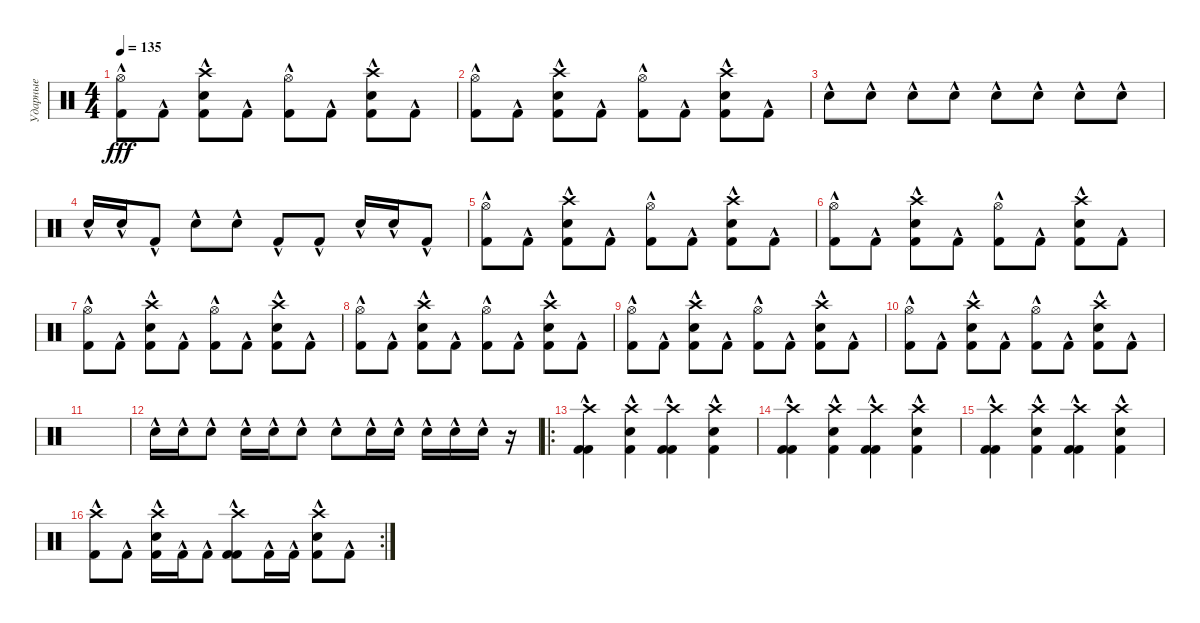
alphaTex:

\track ("Ударные" "Ударные") {instrument percussion}
\staff
\articulation defaults
\ts (4 4)
\tempo 135
\clef neutral
\ks c
("Kick (hit) 2"{hac} "Hi-Hat (open)"{hac}).8{dy fff} "Kick (hit) 2"{hac}.8 ("Kick (hit) 2"{hac} "Electric Snare (hit)"{hac} "Crash high (hit)"{hac}).8 "Kick (hit) 2"{hac}.8 ("Kick (hit) 2"{hac} "Hi-Hat (open)"{hac}).8 "Kick (hit) 2"{hac}.8 ("Kick (hit) 2"{hac} "Electric Snare (hit)"{hac} "Crash high (hit)"{hac}).8 "Kick (hit) 2"{hac}.8 |
("Kick (hit) 2"{hac} "Hi-Hat (open)"{hac}).8 "Kick (hit) 2"{hac}.8 ("Kick (hit) 2"{hac} "Electric Snare (hit)"{hac} "Crash high (hit)"{hac}).8 "Kick (hit) 2"{hac}.8 ("Kick (hit) 2"{hac} "Hi-Hat (open)"{hac}).8 "Kick (hit) 2"{hac}.8 ("Kick (hit) 2"{hac} "Electric Snare (hit)"{hac} "Crash high (hit)"{hac}).8 "Kick (hit) 2"{hac}.8 |
"Electric Snare (hit)"{hac}.8 "Electric Snare (hit)"{hac}.8 "Electric Snare (hit)"{hac}.8 "Electric Snare (hit)"{hac}.8 "Electric Snare (hit)"{hac}.8 "Electric Snare (hit)"{hac}.8 "Electric Snare (hit)"{hac}.8 "Electric Snare (hit)"{hac}.8 |
"Electric Snare (hit)"{hac}.16 "Electric Snare (hit)"{hac}.16 "Kick (hit) 2"{hac}.8 "Electric Snare (hit)"{hac}.8 "Electric Snare (hit)"{hac}.8 "Kick (hit) 2"{hac}.8 "Kick (hit) 2"{hac}.8 "Electric Snare (hit)"{hac}.16 "Electric Snare (hit)"{hac}.16 "Kick (hit) 2"{hac}.8 |
("Kick (hit) 2"{hac} "Hi-Hat (open)"{hac}).8 "Kick (hit) 2"{hac}.8 ("Kick (hit) 2"{hac} "Electric Snare (hit)"{hac} "Crash high (hit)"{hac}).8 "Kick (hit) 2"{hac}.8 ("Kick (hit) 2"{hac} "Hi-Hat (open)"{hac}).8 "Kick (hit) 2"{hac}.8 ("Kick (hit) 2"{hac} "Electric Snare (hit)"{hac} "Crash high (hit)"{hac}).8 "Kick (hit) 2"{hac}.8 |
("Kick (hit) 2"{hac} "Hi-Hat (open)"{hac}).8 "Kick (hit) 2"{hac}.8 ("Kick (hit) 2"{hac} "Electric Snare (hit)"{hac} "Crash high (hit)"{hac}).8 "Kick (hit) 2"{hac}.8 ("Kick (hit) 2"{hac} "Hi-Hat (open)"{hac}).8 "Kick (hit) 2"{hac}.8 ("Kick (hit) 2"{hac} "Electric Snare (hit)"{hac} "Crash high (hit)"{hac}).8 "Kick (hit) 2"{hac}.8 |
("Kick (hit) 2"{hac} "Hi-Hat (open)"{hac}).8 "Kick (hit) 2"{hac}.8 ("Kick (hit) 2"{hac} "Electric Snare (hit)"{hac} "Crash high (hit)"{hac}).8 "Kick (hit) 2"{hac}.8 ("Kick (hit) 2"{hac} "Hi-Hat (open)"{hac}).8 "Kick (hit) 2"{hac}.8 ("Kick (hit) 2"{hac} "Electric Snare (hit)"{hac} "Crash high (hit)"{hac}).8 "Kick (hit) 2"{hac}.8 |
("Kick (hit) 2"{hac} "Hi-Hat (open)"{hac}).8 "Kick (hit) 2"{hac}.8 ("Kick (hit) 2"{hac} "Electric Snare (hit)"{hac} "Crash high (hit)"{hac}).8 "Kick (hit) 2"{hac}.8 ("Kick (hit) 2"{hac} "Hi-Hat (open)"{hac}).8 "Kick (hit) 2"{hac}.8 ("Kick (hit) 2"{hac} "Electric Snare (hit)"{hac} "Crash high (hit)"{hac}).8 "Kick (hit) 2"{hac}.8 |
("Kick (hit) 2"{hac} "Hi-Hat (open)"{hac}).8 "Kick (hit) 2"{hac}.8 ("Kick (hit) 2"{hac} "Electric Snare (hit)"{hac} "Crash high (hit)"{hac}).8 "Kick (hit) 2"{hac}.8 ("Kick (hit) 2"{hac} "Hi-Hat (open)"{hac}).8 "Kick (hit) 2"{hac}.8 ("Kick (hit) 2"{hac} "Electric Snare (hit)"{hac} "Crash high (hit)"{hac}).8 "Kick (hit) 2"{hac}.8 |
("Kick (hit) 2"{hac} "Hi-Hat (open)"{hac}).8 "Kick (hit) 2"{hac}.8 ("Kick (hit) 2"{hac} "Electric Snare (hit)"{hac} "Crash high (hit)"{hac}).8 "Kick (hit) 2"{hac}.8 ("Kick (hit) 2"{hac} "Hi-Hat (open)"{hac}).8 "Kick (hit) 2"{hac}.8 ("Kick (hit) 2"{hac} "Electric Snare (hit)"{hac} "Crash high (hit)"{hac}).8 "Kick (hit) 2"{hac}.8 |
|
"Electric Snare (hit)"{hac}.16 "Electric Snare (hit)"{hac}.16 "Electric Snare (hit)"{hac}.8 "Electric Snare (hit)"{hac}.16 "Electric Snare (hit)"{hac}.16 "Electric Snare (hit)"{hac}.8 "Electric Snare (hit)"{hac}.8 "Electric Snare (hit)"{hac}.16 "Electric Snare (hit)"{hac}.16 "Electric Snare (hit)"{hac}.16 "Electric Snare (hit)"{hac}.16 "Electric Snare (hit)"{hac}.16 r.16 |
\ro
("Kick (hit) 2"{hac} "Crash high (hit)"{hac} "Kick (hit) 2"{hac}).4 ("Kick (hit) 2"{hac} "Crash high (hit)"{hac} "Electric Snare (hit)"{hac}).4 ("Kick (hit) 2"{hac} "Crash high (hit)"{hac} "Kick (hit) 2"{hac}).4 ("Kick (hit) 2"{hac} "Crash high (hit)"{hac} "Electric Snare (hit)"{hac}).4 |
("Kick (hit) 2"{hac} "Crash high (hit)"{hac} "Kick (hit) 2"{hac}).4 ("Kick (hit) 2"{hac} "Crash high (hit)"{hac} "Electric Snare (hit)"{hac}).4 ("Kick (hit) 2"{hac} "Crash high (hit)"{hac} "Kick (hit) 2"{hac}).4 ("Kick (hit) 2"{hac} "Crash high (hit)"{hac} "Electric Snare (hit)"{hac}).4 |
("Kick (hit) 2"{hac} "Crash high (hit)"{hac} "Kick (hit) 2"{hac}).4 ("Kick (hit) 2"{hac} "Crash high (hit)"{hac} "Electric Snare (hit)"{hac}).4 ("Kick (hit) 2"{hac} "Crash high (hit)"{hac} "Kick (hit) 2"{hac}).4 ("Kick (hit) 2"{hac} "Crash high (hit)"{hac} "Electric Snare (hit)"{hac}).4 |
\rc 2
("Kick (hit) 2"{hac} "Crash high (hit)"{hac}).8 "Kick (hit) 2"{hac}.8 ("Kick (hit) 2"{hac} "Crash high (hit)"{hac} "Electric Snare (hit)"{hac}).16 "Kick (hit) 2"{hac}.16 "Kick (hit) 2"{hac}.8 ("Kick (hit) 2"{hac} "Crash high (hit)"{hac} "Kick (hit) 2"{hac}).8 "Kick (hit) 2"{hac}.16 "Kick (hit) 2"{hac}.16 ("Kick (hit) 2"{hac} "Crash high (hit)"{hac} "Electric Snare (hit)"{hac}).8 "Kick (hit) 2"{hac}.8
